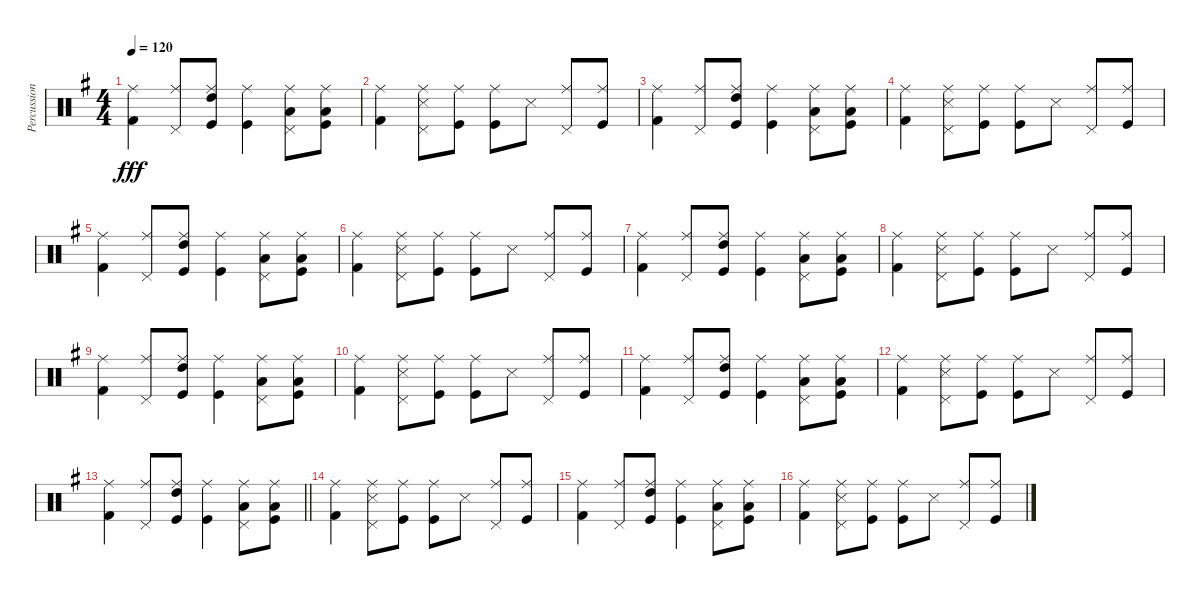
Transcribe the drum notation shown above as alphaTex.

\track ("Percussions" "Percussion") {instrument percussion}
\staff {score}
\articulation defaults
\ts (4 4)
\tempo 120
\clef neutral
\ks g
("Ride (middle)" "Kick (hit) 2").4{dy fff} ("Ride (middle)" "Pedal Hi-Hat (hit)").8 ("Ride (middle)" "Kick (hit)" "High Tom (hit)").8 ("Ride (middle)" "Kick (hit)").4 ("Ride (middle)" "Low Tom (hit)" "Pedal Hi-Hat (hit)").8 ("Ride (middle)" "Kick (hit)" "Low Tom (hit)").8 |
("Ride (middle)" "Kick (hit) 2").4 ("Ride (middle)" "Pedal Hi-Hat (hit)" "Snare (side stick) 3").8 ("Ride (middle)" "Kick (hit)").8 ("Ride (middle)" "Kick (hit)").8 "Snare (side stick) 3".8 ("Ride (middle)" "Pedal Hi-Hat (hit)").8 ("Ride (middle)" "Kick (hit)").8 |
("Ride (middle)" "Kick (hit) 2").4 ("Ride (middle)" "Pedal Hi-Hat (hit)").8 ("Ride (middle)" "Kick (hit)" "High Tom (hit)").8 ("Ride (middle)" "Kick (hit)").4 ("Ride (middle)" "Low Tom (hit)" "Pedal Hi-Hat (hit)").8 ("Ride (middle)" "Kick (hit)" "Low Tom (hit)").8 |
("Ride (middle)" "Kick (hit) 2").4 ("Ride (middle)" "Pedal Hi-Hat (hit)" "Snare (side stick) 3").8 ("Ride (middle)" "Kick (hit)").8 ("Ride (middle)" "Kick (hit)").8 "Snare (side stick) 3".8 ("Ride (middle)" "Pedal Hi-Hat (hit)").8 ("Ride (middle)" "Kick (hit)").8 |
("Ride (middle)" "Kick (hit) 2").4 ("Ride (middle)" "Pedal Hi-Hat (hit)").8 ("Ride (middle)" "Kick (hit)" "High Tom (hit)").8 ("Ride (middle)" "Kick (hit)").4 ("Ride (middle)" "Low Tom (hit)" "Pedal Hi-Hat (hit)").8 ("Ride (middle)" "Kick (hit)" "Low Tom (hit)").8 |
("Ride (middle)" "Kick (hit) 2").4 ("Ride (middle)" "Pedal Hi-Hat (hit)" "Snare (side stick) 3").8 ("Ride (middle)" "Kick (hit)").8 ("Ride (middle)" "Kick (hit)").8 "Snare (side stick) 3".8 ("Ride (middle)" "Pedal Hi-Hat (hit)").8 ("Ride (middle)" "Kick (hit)").8 |
("Ride (middle)" "Kick (hit) 2").4 ("Ride (middle)" "Pedal Hi-Hat (hit)").8 ("Ride (middle)" "Kick (hit)" "High Tom (hit)").8 ("Ride (middle)" "Kick (hit)").4 ("Ride (middle)" "Low Tom (hit)" "Pedal Hi-Hat (hit)").8 ("Ride (middle)" "Kick (hit)" "Low Tom (hit)").8 |
("Ride (middle)" "Kick (hit) 2").4 ("Ride (middle)" "Pedal Hi-Hat (hit)" "Snare (side stick) 3").8 ("Ride (middle)" "Kick (hit)").8 ("Ride (middle)" "Kick (hit)").8 "Snare (side stick) 3".8 ("Ride (middle)" "Pedal Hi-Hat (hit)").8 ("Ride (middle)" "Kick (hit)").8 |
("Ride (middle)" "Kick (hit) 2").4 ("Ride (middle)" "Pedal Hi-Hat (hit)").8 ("Ride (middle)" "Kick (hit)" "High Tom (hit)").8 ("Ride (middle)" "Kick (hit)").4 ("Ride (middle)" "Low Tom (hit)" "Pedal Hi-Hat (hit)").8 ("Ride (middle)" "Kick (hit)" "Low Tom (hit)").8 |
("Ride (middle)" "Kick (hit) 2").4 ("Ride (middle)" "Pedal Hi-Hat (hit)" "Snare (side stick) 3").8 ("Ride (middle)" "Kick (hit)").8 ("Ride (middle)" "Kick (hit)").8 "Snare (side stick) 3".8 ("Ride (middle)" "Pedal Hi-Hat (hit)").8 ("Ride (middle)" "Kick (hit)").8 |
("Ride (middle)" "Kick (hit) 2").4 ("Ride (middle)" "Pedal Hi-Hat (hit)").8 ("Ride (middle)" "Kick (hit)" "High Tom (hit)").8 ("Ride (middle)" "Kick (hit)").4 ("Ride (middle)" "Low Tom (hit)" "Pedal Hi-Hat (hit)").8 ("Ride (middle)" "Kick (hit)" "Low Tom (hit)").8 |
("Ride (middle)" "Kick (hit) 2").4 ("Ride (middle)" "Pedal Hi-Hat (hit)" "Snare (side stick) 3").8 ("Ride (middle)" "Kick (hit)").8 ("Ride (middle)" "Kick (hit)").8 "Snare (side stick) 3".8 ("Ride (middle)" "Pedal Hi-Hat (hit)").8 ("Ride (middle)" "Kick (hit)").8 |
\barLineRight lightlight
("Ride (middle)" "Kick (hit) 2").4 ("Ride (middle)" "Pedal Hi-Hat (hit)").8 ("Ride (middle)" "Kick (hit)" "High Tom (hit)").8 ("Ride (middle)" "Kick (hit)").4 ("Ride (middle)" "Low Tom (hit)" "Pedal Hi-Hat (hit)").8 ("Ride (middle)" "Kick (hit)" "Low Tom (hit)").8 |
\section ("" "")
("Ride (middle)" "Kick (hit) 2").4 ("Ride (middle)" "Pedal Hi-Hat (hit)" "Snare (side stick) 3").8 ("Ride (middle)" "Kick (hit)").8 ("Ride (middle)" "Kick (hit)").8 "Snare (side stick) 3".8 ("Ride (middle)" "Pedal Hi-Hat (hit)").8 ("Ride (middle)" "Kick (hit)").8 |
("Ride (middle)" "Kick (hit) 2").4 ("Ride (middle)" "Pedal Hi-Hat (hit)").8 ("Ride (middle)" "Kick (hit)" "High Tom (hit)").8 ("Ride (middle)" "Kick (hit)").4 ("Ride (middle)" "Low Tom (hit)" "Pedal Hi-Hat (hit)").8 ("Ride (middle)" "Kick (hit)" "Low Tom (hit)").8 |
("Ride (middle)" "Kick (hit) 2").4 ("Ride (middle)" "Pedal Hi-Hat (hit)" "Snare (side stick) 3").8 ("Ride (middle)" "Kick (hit)").8 ("Ride (middle)" "Kick (hit)").8 "Snare (side stick) 3".8 ("Ride (middle)" "Pedal Hi-Hat (hit)").8 ("Ride (middle)" "Kick (hit)").8
